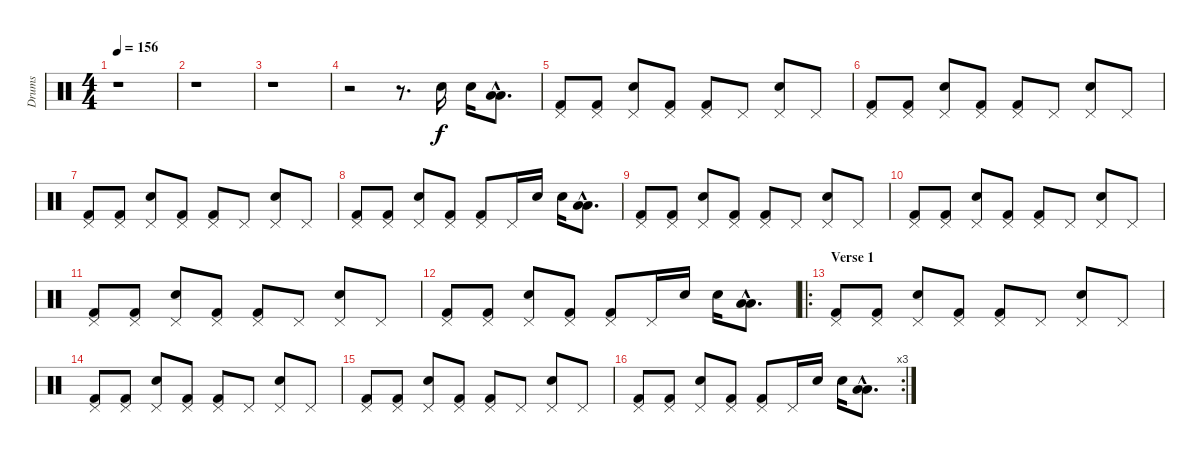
\track ("Drums" "Drums") {instrument percussion}
\staff {score}
\articulation defaults
\ts (4 4)
\tempo 156
\clef neutral
\ks c
r.1{dy f} |
r.1 |
r.1 |
r.2 r.8{d} "Snare (hit) 2".16 "Snare (hit) 2".16 ("Low Tom (hit)"{hac} "Low Tom (hit)"{hac}).8{d} |
("Pedal Hi-Hat (hit)" "Kick (hit) 2").8 ("Pedal Hi-Hat (hit)" "Kick (hit) 2").8 ("Pedal Hi-Hat (hit)" "Snare (hit) 2").8 ("Pedal Hi-Hat (hit)" "Kick (hit) 2").8 ("Pedal Hi-Hat (hit)" "Kick (hit) 2").8 "Pedal Hi-Hat (hit)".8 ("Pedal Hi-Hat (hit)" "Snare (hit) 2").8 "Pedal Hi-Hat (hit)".8 |
("Pedal Hi-Hat (hit)" "Kick (hit) 2").8 ("Pedal Hi-Hat (hit)" "Kick (hit) 2").8 ("Pedal Hi-Hat (hit)" "Snare (hit) 2").8 ("Pedal Hi-Hat (hit)" "Kick (hit) 2").8 ("Pedal Hi-Hat (hit)" "Kick (hit) 2").8 "Pedal Hi-Hat (hit)".8 ("Pedal Hi-Hat (hit)" "Snare (hit) 2").8 "Pedal Hi-Hat (hit)".8 |
("Pedal Hi-Hat (hit)" "Kick (hit) 2").8 ("Pedal Hi-Hat (hit)" "Kick (hit) 2").8 ("Pedal Hi-Hat (hit)" "Snare (hit) 2").8 ("Pedal Hi-Hat (hit)" "Kick (hit) 2").8 ("Pedal Hi-Hat (hit)" "Kick (hit) 2").8 "Pedal Hi-Hat (hit)".8 ("Pedal Hi-Hat (hit)" "Snare (hit) 2").8 "Pedal Hi-Hat (hit)".8 |
("Pedal Hi-Hat (hit)" "Kick (hit) 2").8 ("Pedal Hi-Hat (hit)" "Kick (hit) 2").8 ("Pedal Hi-Hat (hit)" "Snare (hit) 2").8 ("Pedal Hi-Hat (hit)" "Kick (hit) 2").8 ("Pedal Hi-Hat (hit)" "Kick (hit) 2").8 "Pedal Hi-Hat (hit)".16 "Snare (hit) 2".16 "Snare (hit) 2".16 ("Low Tom (hit)"{hac} "Low Tom (hit)"{hac}).8{d} |
("Pedal Hi-Hat (hit)" "Kick (hit) 2").8 ("Pedal Hi-Hat (hit)" "Kick (hit) 2").8 ("Pedal Hi-Hat (hit)" "Snare (hit) 2").8 ("Pedal Hi-Hat (hit)" "Kick (hit) 2").8 ("Pedal Hi-Hat (hit)" "Kick (hit) 2").8 "Pedal Hi-Hat (hit)".8 ("Pedal Hi-Hat (hit)" "Snare (hit) 2").8 "Pedal Hi-Hat (hit)".8 |
("Pedal Hi-Hat (hit)" "Kick (hit) 2").8 ("Pedal Hi-Hat (hit)" "Kick (hit) 2").8 ("Pedal Hi-Hat (hit)" "Snare (hit) 2").8 ("Pedal Hi-Hat (hit)" "Kick (hit) 2").8 ("Pedal Hi-Hat (hit)" "Kick (hit) 2").8 "Pedal Hi-Hat (hit)".8 ("Pedal Hi-Hat (hit)" "Snare (hit) 2").8 "Pedal Hi-Hat (hit)".8 |
("Pedal Hi-Hat (hit)" "Kick (hit) 2").8 ("Pedal Hi-Hat (hit)" "Kick (hit) 2").8 ("Pedal Hi-Hat (hit)" "Snare (hit) 2").8 ("Pedal Hi-Hat (hit)" "Kick (hit) 2").8 ("Pedal Hi-Hat (hit)" "Kick (hit) 2").8 "Pedal Hi-Hat (hit)".8 ("Pedal Hi-Hat (hit)" "Snare (hit) 2").8 "Pedal Hi-Hat (hit)".8 |
("Pedal Hi-Hat (hit)" "Kick (hit) 2").8 ("Pedal Hi-Hat (hit)" "Kick (hit) 2").8 ("Pedal Hi-Hat (hit)" "Snare (hit) 2").8 ("Pedal Hi-Hat (hit)" "Kick (hit) 2").8 ("Pedal Hi-Hat (hit)" "Kick (hit) 2").8 "Pedal Hi-Hat (hit)".16 "Snare (hit) 2".16 "Snare (hit) 2".16 ("Low Tom (hit)"{hac} "Low Tom (hit)"{hac}).8{d} |
\ro
\section ("" "Verse 1")
("Pedal Hi-Hat (hit)" "Kick (hit) 2").8 ("Pedal Hi-Hat (hit)" "Kick (hit) 2").8 ("Pedal Hi-Hat (hit)" "Snare (hit) 2").8 ("Pedal Hi-Hat (hit)" "Kick (hit) 2").8 ("Pedal Hi-Hat (hit)" "Kick (hit) 2").8 "Pedal Hi-Hat (hit)".8 ("Pedal Hi-Hat (hit)" "Snare (hit) 2").8 "Pedal Hi-Hat (hit)".8 |
("Pedal Hi-Hat (hit)" "Kick (hit) 2").8 ("Pedal Hi-Hat (hit)" "Kick (hit) 2").8 ("Pedal Hi-Hat (hit)" "Snare (hit) 2").8 ("Pedal Hi-Hat (hit)" "Kick (hit) 2").8 ("Pedal Hi-Hat (hit)" "Kick (hit) 2").8 "Pedal Hi-Hat (hit)".8 ("Pedal Hi-Hat (hit)" "Snare (hit) 2").8 "Pedal Hi-Hat (hit)".8 |
("Pedal Hi-Hat (hit)" "Kick (hit) 2").8 ("Pedal Hi-Hat (hit)" "Kick (hit) 2").8 ("Pedal Hi-Hat (hit)" "Snare (hit) 2").8 ("Pedal Hi-Hat (hit)" "Kick (hit) 2").8 ("Pedal Hi-Hat (hit)" "Kick (hit) 2").8 "Pedal Hi-Hat (hit)".8 ("Pedal Hi-Hat (hit)" "Snare (hit) 2").8 "Pedal Hi-Hat (hit)".8 |
\rc 3
("Pedal Hi-Hat (hit)" "Kick (hit) 2").8 ("Pedal Hi-Hat (hit)" "Kick (hit) 2").8 ("Pedal Hi-Hat (hit)" "Snare (hit) 2").8 ("Pedal Hi-Hat (hit)" "Kick (hit) 2").8 ("Pedal Hi-Hat (hit)" "Kick (hit) 2").8 "Pedal Hi-Hat (hit)".16 "Snare (hit) 2".16 "Snare (hit) 2".16 ("Low Tom (hit)"{hac} "Low Tom (hit)"{hac}).8{d}
